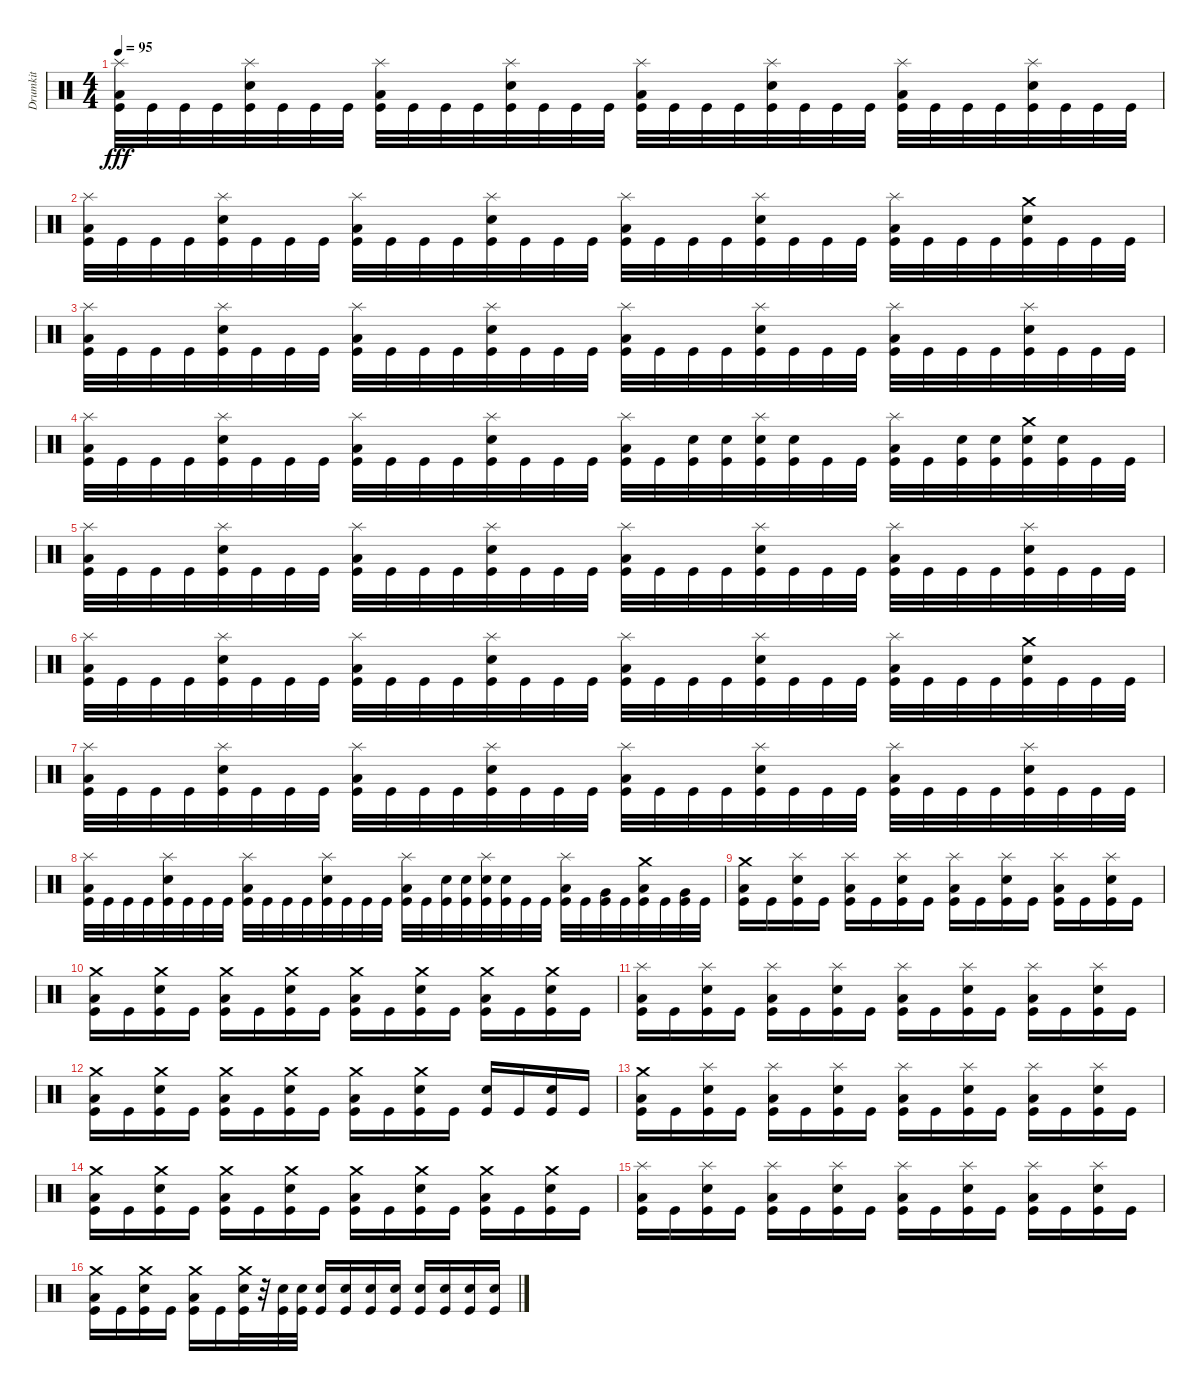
\track ("Drumkit" "Drumkit") {instrument percussion}
\staff {score}
\articulation defaults
\ts (4 4)
\tempo 95
\clef neutral
\ks c
("Splash (hit)" "Low Floor Tom (hit)" "Kick (hit)").32{dy fff} "Kick (hit)".32 "Kick (hit)".32 "Kick (hit)".32 ("Splash (hit)" "Snare (hit) 2" "Kick (hit)").32 "Kick (hit)".32 "Kick (hit)".32 "Kick (hit)".32 ("Splash (hit)" "Low Floor Tom (hit)" "Kick (hit)").32 "Kick (hit)".32 "Kick (hit)".32 "Kick (hit)".32 ("Splash (hit)" "Snare (hit) 2" "Kick (hit)").32 "Kick (hit)".32 "Kick (hit)".32 "Kick (hit)".32 ("Splash (hit)" "Low Floor Tom (hit)" "Kick (hit)").32 "Kick (hit)".32 "Kick (hit)".32 "Kick (hit)".32 ("Splash (hit)" "Snare (hit) 2" "Kick (hit)").32 "Kick (hit)".32 "Kick (hit)".32 "Kick (hit)".32 ("Splash (hit)" "Low Floor Tom (hit)" "Kick (hit)").32 "Kick (hit)".32 "Kick (hit)".32 "Kick (hit)".32 ("Splash (hit)" "Snare (hit) 2" "Kick (hit)").32 "Kick (hit)".32 "Kick (hit)".32 "Kick (hit)".32 |
("Splash (hit)" "Low Floor Tom (hit)" "Kick (hit)").32 "Kick (hit)".32 "Kick (hit)".32 "Kick (hit)".32 ("Splash (hit)" "Snare (hit) 2" "Kick (hit)").32 "Kick (hit)".32 "Kick (hit)".32 "Kick (hit)".32 ("Splash (hit)" "Low Floor Tom (hit)" "Kick (hit)").32 "Kick (hit)".32 "Kick (hit)".32 "Kick (hit)".32 ("Splash (hit)" "Snare (hit) 2" "Kick (hit)").32 "Kick (hit)".32 "Kick (hit)".32 "Kick (hit)".32 ("Splash (hit)" "Low Floor Tom (hit)" "Kick (hit)").32 "Kick (hit)".32 "Kick (hit)".32 "Kick (hit)".32 ("Splash (hit)" "Snare (hit) 2" "Kick (hit)").32 "Kick (hit)".32 "Kick (hit)".32 "Kick (hit)".32 ("Splash (hit)" "Low Floor Tom (hit)" "Kick (hit)").32 "Kick (hit)".32 "Kick (hit)".32 "Kick (hit)".32 ("Crash medium (hit)" "Snare (hit) 2" "Kick (hit)").32 "Kick (hit)".32 "Kick (hit)".32 "Kick (hit)".32 |
("Splash (hit)" "Low Floor Tom (hit)" "Kick (hit)").32 "Kick (hit)".32 "Kick (hit)".32 "Kick (hit)".32 ("Splash (hit)" "Snare (hit) 2" "Kick (hit)").32 "Kick (hit)".32 "Kick (hit)".32 "Kick (hit)".32 ("Splash (hit)" "Low Floor Tom (hit)" "Kick (hit)").32 "Kick (hit)".32 "Kick (hit)".32 "Kick (hit)".32 ("Splash (hit)" "Snare (hit) 2" "Kick (hit)").32 "Kick (hit)".32 "Kick (hit)".32 "Kick (hit)".32 ("Splash (hit)" "Low Floor Tom (hit)" "Kick (hit)").32 "Kick (hit)".32 "Kick (hit)".32 "Kick (hit)".32 ("Splash (hit)" "Snare (hit) 2" "Kick (hit)").32 "Kick (hit)".32 "Kick (hit)".32 "Kick (hit)".32 ("Splash (hit)" "Low Floor Tom (hit)" "Kick (hit)").32 "Kick (hit)".32 "Kick (hit)".32 "Kick (hit)".32 ("Splash (hit)" "Snare (hit) 2" "Kick (hit)").32 "Kick (hit)".32 "Kick (hit)".32 "Kick (hit)".32 |
("Splash (hit)" "Low Floor Tom (hit)" "Kick (hit)").32 "Kick (hit)".32 "Kick (hit)".32 "Kick (hit)".32 ("Splash (hit)" "Snare (hit) 2" "Kick (hit)").32 "Kick (hit)".32 "Kick (hit)".32 "Kick (hit)".32 ("Splash (hit)" "Low Floor Tom (hit)" "Kick (hit)").32 "Kick (hit)".32 "Kick (hit)".32 "Kick (hit)".32 ("Splash (hit)" "Snare (hit) 2" "Kick (hit)").32 "Kick (hit)".32 "Kick (hit)".32 "Kick (hit)".32 ("Splash (hit)" "Low Floor Tom (hit)" "Kick (hit)").32 "Kick (hit)".32 ("Snare (hit) 2" "Kick (hit)").32 ("Snare (hit) 2" "Kick (hit)").32 ("Splash (hit)" "Snare (hit) 2" "Kick (hit)").32 ("Snare (hit) 2" "Kick (hit)").32 "Kick (hit)".32 "Kick (hit)".32 ("Splash (hit)" "Low Floor Tom (hit)" "Kick (hit)").32 "Kick (hit)".32 ("Snare (hit) 2" "Kick (hit)").32 ("Snare (hit) 2" "Kick (hit)").32 ("Crash medium (hit)" "Snare (hit) 2" "Kick (hit)").32 ("Snare (hit) 2" "Kick (hit)").32 "Kick (hit)".32 "Kick (hit)".32 |
("Splash (hit)" "Low Floor Tom (hit)" "Kick (hit)").32 "Kick (hit)".32 "Kick (hit)".32 "Kick (hit)".32 ("Splash (hit)" "Snare (hit) 2" "Kick (hit)").32 "Kick (hit)".32 "Kick (hit)".32 "Kick (hit)".32 ("Splash (hit)" "Low Floor Tom (hit)" "Kick (hit)").32 "Kick (hit)".32 "Kick (hit)".32 "Kick (hit)".32 ("Splash (hit)" "Snare (hit) 2" "Kick (hit)").32 "Kick (hit)".32 "Kick (hit)".32 "Kick (hit)".32 ("Splash (hit)" "Low Floor Tom (hit)" "Kick (hit)").32 "Kick (hit)".32 "Kick (hit)".32 "Kick (hit)".32 ("Splash (hit)" "Snare (hit) 2" "Kick (hit)").32 "Kick (hit)".32 "Kick (hit)".32 "Kick (hit)".32 ("Splash (hit)" "Low Floor Tom (hit)" "Kick (hit)").32 "Kick (hit)".32 "Kick (hit)".32 "Kick (hit)".32 ("Splash (hit)" "Snare (hit) 2" "Kick (hit)").32 "Kick (hit)".32 "Kick (hit)".32 "Kick (hit)".32 |
("Splash (hit)" "Low Floor Tom (hit)" "Kick (hit)").32 "Kick (hit)".32 "Kick (hit)".32 "Kick (hit)".32 ("Splash (hit)" "Snare (hit) 2" "Kick (hit)").32 "Kick (hit)".32 "Kick (hit)".32 "Kick (hit)".32 ("Splash (hit)" "Low Floor Tom (hit)" "Kick (hit)").32 "Kick (hit)".32 "Kick (hit)".32 "Kick (hit)".32 ("Splash (hit)" "Snare (hit) 2" "Kick (hit)").32 "Kick (hit)".32 "Kick (hit)".32 "Kick (hit)".32 ("Splash (hit)" "Low Floor Tom (hit)" "Kick (hit)").32 "Kick (hit)".32 "Kick (hit)".32 "Kick (hit)".32 ("Splash (hit)" "Snare (hit) 2" "Kick (hit)").32 "Kick (hit)".32 "Kick (hit)".32 "Kick (hit)".32 ("Splash (hit)" "Low Floor Tom (hit)" "Kick (hit)").32 "Kick (hit)".32 "Kick (hit)".32 "Kick (hit)".32 ("Crash medium (hit)" "Snare (hit) 2" "Kick (hit)").32 "Kick (hit)".32 "Kick (hit)".32 "Kick (hit)".32 |
("Splash (hit)" "Low Floor Tom (hit)" "Kick (hit)").32 "Kick (hit)".32 "Kick (hit)".32 "Kick (hit)".32 ("Splash (hit)" "Snare (hit) 2" "Kick (hit)").32 "Kick (hit)".32 "Kick (hit)".32 "Kick (hit)".32 ("Splash (hit)" "Low Floor Tom (hit)" "Kick (hit)").32 "Kick (hit)".32 "Kick (hit)".32 "Kick (hit)".32 ("Splash (hit)" "Snare (hit) 2" "Kick (hit)").32 "Kick (hit)".32 "Kick (hit)".32 "Kick (hit)".32 ("Splash (hit)" "Low Floor Tom (hit)" "Kick (hit)").32 "Kick (hit)".32 "Kick (hit)".32 "Kick (hit)".32 ("Splash (hit)" "Snare (hit) 2" "Kick (hit)").32 "Kick (hit)".32 "Kick (hit)".32 "Kick (hit)".32 ("Splash (hit)" "Low Floor Tom (hit)" "Kick (hit)").32 "Kick (hit)".32 "Kick (hit)".32 "Kick (hit)".32 ("Splash (hit)" "Snare (hit) 2" "Kick (hit)").32 "Kick (hit)".32 "Kick (hit)".32 "Kick (hit)".32 |
("Splash (hit)" "Low Floor Tom (hit)" "Kick (hit)").32 "Kick (hit)".32 "Kick (hit)".32 "Kick (hit)".32 ("Splash (hit)" "Snare (hit) 2" "Kick (hit)").32 "Kick (hit)".32 "Kick (hit)".32 "Kick (hit)".32 ("Splash (hit)" "Low Floor Tom (hit)" "Kick (hit)").32 "Kick (hit)".32 "Kick (hit)".32 "Kick (hit)".32 ("Splash (hit)" "Snare (hit) 2" "Kick (hit)").32 "Kick (hit)".32 "Kick (hit)".32 "Kick (hit)".32 ("Splash (hit)" "Low Floor Tom (hit)" "Kick (hit)").32 "Kick (hit)".32 ("Snare (hit) 2" "Kick (hit)").32 ("Snare (hit) 2" "Kick (hit)").32 ("Splash (hit)" "Snare (hit) 2" "Kick (hit)").32 ("Snare (hit) 2" "Kick (hit)").32 "Kick (hit)".32 "Kick (hit)".32 ("Splash (hit)" "Low Floor Tom (hit)" "Kick (hit)").32 "Kick (hit)".32 ("Very Low Tom (hit)" "Kick (hit)").32 "Kick (hit)".32 ("Crash medium (hit)" "Low Floor Tom (hit)" "Kick (hit)").32 "Kick (hit)".32 ("Very Low Tom (hit)" "Kick (hit)").32 "Kick (hit)".32 |
("Crash medium (hit)" "Low Floor Tom (hit)" "Kick (hit)").16 "Kick (hit)".16 ("Splash (hit)" "Snare (hit) 2" "Kick (hit)").16 "Kick (hit)".16 ("Splash (hit)" "Low Floor Tom (hit)" "Kick (hit)").16 "Kick (hit)".16 ("Splash (hit)" "Snare (hit) 2" "Kick (hit)").16 "Kick (hit)".16 ("Splash (hit)" "Low Floor Tom (hit)" "Kick (hit)").16 "Kick (hit)".16 ("Splash (hit)" "Snare (hit) 2" "Kick (hit)").16 "Kick (hit)".16 ("Splash (hit)" "Low Floor Tom (hit)" "Kick (hit)").16 "Kick (hit)".16 ("Splash (hit)" "Snare (hit) 2" "Kick (hit)").16 "Kick (hit)".16 |
("Crash medium (hit)" "Low Floor Tom (hit)" "Kick (hit)").16 "Kick (hit)".16 ("Crash medium (hit)" "Snare (hit) 2" "Kick (hit)").16 "Kick (hit)".16 ("Crash medium (hit)" "Low Floor Tom (hit)" "Kick (hit)").16 "Kick (hit)".16 ("Crash medium (hit)" "Snare (hit) 2" "Kick (hit)").16 "Kick (hit)".16 ("Crash medium (hit)" "Low Floor Tom (hit)" "Kick (hit)").16 "Kick (hit)".16 ("Crash medium (hit)" "Snare (hit) 2" "Kick (hit)").16 "Kick (hit)".16 ("Crash medium (hit)" "Low Floor Tom (hit)" "Kick (hit)").16 "Kick (hit)".16 ("Crash medium (hit)" "Snare (hit) 2" "Kick (hit)").16 "Kick (hit)".16 |
("Splash (hit)" "Low Floor Tom (hit)" "Kick (hit)").16 "Kick (hit)".16 ("Splash (hit)" "Snare (hit) 2" "Kick (hit)").16 "Kick (hit)".16 ("Splash (hit)" "Low Floor Tom (hit)" "Kick (hit)").16 "Kick (hit)".16 ("Splash (hit)" "Snare (hit) 2" "Kick (hit)").16 "Kick (hit)".16 ("Splash (hit)" "Low Floor Tom (hit)" "Kick (hit)").16 "Kick (hit)".16 ("Splash (hit)" "Snare (hit) 2" "Kick (hit)").16 "Kick (hit)".16 ("Splash (hit)" "Low Floor Tom (hit)" "Kick (hit)").16 "Kick (hit)".16 ("Splash (hit)" "Snare (hit) 2" "Kick (hit)").16 "Kick (hit)".16 |
("Crash medium (hit)" "Low Floor Tom (hit)" "Kick (hit)").16 "Kick (hit)".16 ("Crash medium (hit)" "Snare (hit) 2" "Kick (hit)").16 "Kick (hit)".16 ("Crash medium (hit)" "Low Floor Tom (hit)" "Kick (hit)").16 "Kick (hit)".16 ("Crash medium (hit)" "Snare (hit) 2" "Kick (hit)").16 "Kick (hit)".16 ("Crash medium (hit)" "Low Floor Tom (hit)" "Kick (hit)").16 "Kick (hit)".16 ("Crash medium (hit)" "Snare (hit) 2" "Kick (hit)").16 "Kick (hit)".16 ("Snare (hit) 2" "Kick (hit)").16 "Kick (hit)".16 ("Snare (hit) 2" "Kick (hit)").16 "Kick (hit)".16 |
("Crash medium (hit)" "Low Floor Tom (hit)" "Kick (hit)").16 "Kick (hit)".16 ("Splash (hit)" "Snare (hit) 2" "Kick (hit)").16 "Kick (hit)".16 ("Splash (hit)" "Low Floor Tom (hit)" "Kick (hit)").16 "Kick (hit)".16 ("Splash (hit)" "Snare (hit) 2" "Kick (hit)").16 "Kick (hit)".16 ("Splash (hit)" "Low Floor Tom (hit)" "Kick (hit)").16 "Kick (hit)".16 ("Splash (hit)" "Snare (hit) 2" "Kick (hit)").16 "Kick (hit)".16 ("Splash (hit)" "Low Floor Tom (hit)" "Kick (hit)").16 "Kick (hit)".16 ("Splash (hit)" "Snare (hit) 2" "Kick (hit)").16 "Kick (hit)".16 |
("Crash medium (hit)" "Low Floor Tom (hit)" "Kick (hit)").16 "Kick (hit)".16 ("Crash medium (hit)" "Snare (hit) 2" "Kick (hit)").16 "Kick (hit)".16 ("Crash medium (hit)" "Low Floor Tom (hit)" "Kick (hit)").16 "Kick (hit)".16 ("Crash medium (hit)" "Snare (hit) 2" "Kick (hit)").16 "Kick (hit)".16 ("Crash medium (hit)" "Low Floor Tom (hit)" "Kick (hit)").16 "Kick (hit)".16 ("Crash medium (hit)" "Snare (hit) 2" "Kick (hit)").16 "Kick (hit)".16 ("Crash medium (hit)" "Low Floor Tom (hit)" "Kick (hit)").16 "Kick (hit)".16 ("Crash medium (hit)" "Snare (hit) 2" "Kick (hit)").16 "Kick (hit)".16 |
("Splash (hit)" "Low Floor Tom (hit)" "Kick (hit)").16 "Kick (hit)".16 ("Splash (hit)" "Snare (hit) 2" "Kick (hit)").16 "Kick (hit)".16 ("Splash (hit)" "Low Floor Tom (hit)" "Kick (hit)").16 "Kick (hit)".16 ("Splash (hit)" "Snare (hit) 2" "Kick (hit)").16 "Kick (hit)".16 ("Splash (hit)" "Low Floor Tom (hit)" "Kick (hit)").16 "Kick (hit)".16 ("Splash (hit)" "Snare (hit) 2" "Kick (hit)").16 "Kick (hit)".16 ("Splash (hit)" "Low Floor Tom (hit)" "Kick (hit)").16 "Kick (hit)".16 ("Splash (hit)" "Snare (hit) 2" "Kick (hit)").16 "Kick (hit)".16 |
("Crash medium (hit)" "Low Floor Tom (hit)" "Kick (hit)").16 "Kick (hit)".16 ("Crash medium (hit)" "Snare (hit) 2" "Kick (hit)").16 "Kick (hit)".16 ("Crash medium (hit)" "Low Floor Tom (hit)" "Kick (hit)").16 "Kick (hit)".16 ("Crash medium (hit)" "Snare (hit) 2" "Kick (hit)").32 r.32 ("Snare (hit) 2" "Kick (hit)").32 ("Snare (hit) 2" "Kick (hit)").32 ("Snare (hit) 2" "Kick (hit)").16 ("Snare (hit) 2" "Kick (hit)").16 ("Snare (hit) 2" "Kick (hit)").16 ("Snare (hit) 2" "Kick (hit)").16 ("Snare (hit) 2" "Kick (hit)").16 ("Snare (hit) 2" "Kick (hit)").16 ("Snare (hit) 2" "Kick (hit)").16 ("Snare (hit) 2" "Kick (hit)").16
